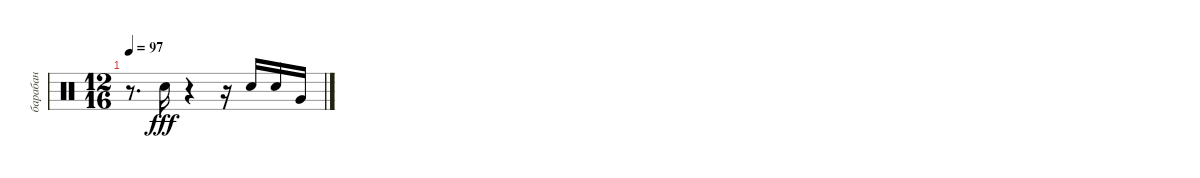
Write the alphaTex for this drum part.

\track ("барабан" "барабан") {instrument percussion}
\staff {score}
\articulation defaults
\ts (12 16)
\tempo 97
\clef neutral
\ks c
r.8{d dy fff} "Snare (hit) 2".16 r.4 r.16 "Snare (hit) 2".16 "Snare (hit) 2".16 "Very Low Tom (hit)".16
